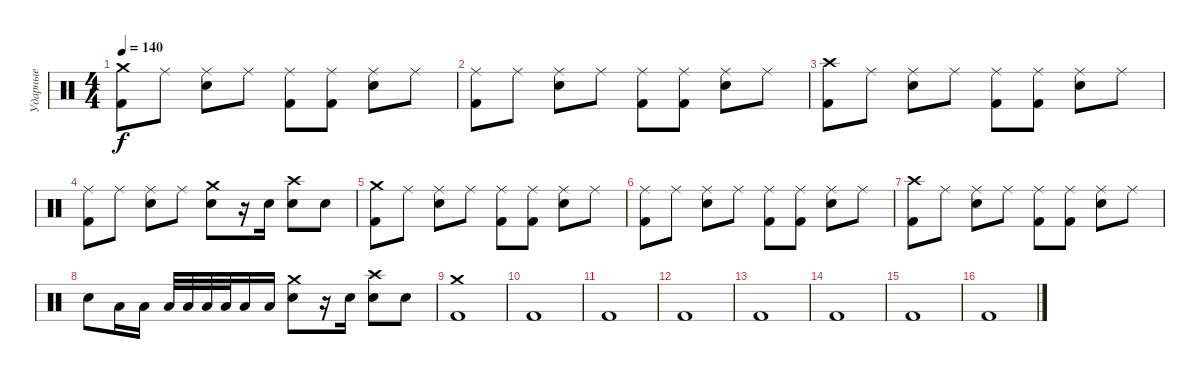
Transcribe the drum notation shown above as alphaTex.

\track ("Ударные" "Ударные") {instrument percussion}
\staff {score}
\articulation defaults
\ts (4 4)
\tempo 140
\clef neutral
\ks c
("Crash medium (hit)" "Kick (hit) 2").8{dy f} "Ride (middle)".8 ("Ride (middle)" "Electric Snare (hit)").8 "Ride (middle)".8 ("Ride (middle)" "Kick (hit) 2").8 ("Ride (middle)" "Kick (hit) 2").8 ("Ride (middle)" "Electric Snare (hit)").8 "Ride (middle)".8 |
("Ride (middle)" "Kick (hit) 2").8 "Ride (middle)".8 ("Ride (middle)" "Electric Snare (hit)").8 "Ride (middle)".8 ("Ride (middle)" "Kick (hit) 2").8 ("Ride (middle)" "Kick (hit) 2").8 ("Ride (middle)" "Electric Snare (hit)").8 "Ride (middle)".8 |
("Crash high (hit)" "Kick (hit) 2").8 "Ride (middle)".8 ("Ride (middle)" "Electric Snare (hit)").8 "Ride (middle)".8 ("Ride (middle)" "Kick (hit) 2").8 ("Ride (middle)" "Kick (hit) 2").8 ("Ride (middle)" "Electric Snare (hit)").8 "Ride (middle)".8 |
("Ride (middle)" "Kick (hit) 2").8 "Ride (middle)".8 ("Ride (middle)" "Electric Snare (hit)").8 "Ride (middle)".8 ("Crash medium (hit)" "Electric Snare (hit)").8 r.16 "Electric Snare (hit)".16 ("Crash high (hit)" "Electric Snare (hit)").8 "Electric Snare (hit)".8 |
("Crash medium (hit)" "Kick (hit) 2").8 "Ride (middle)".8 ("Ride (middle)" "Electric Snare (hit)").8 "Ride (middle)".8 ("Ride (middle)" "Kick (hit) 2").8 ("Ride (middle)" "Kick (hit) 2").8 ("Ride (middle)" "Electric Snare (hit)").8 "Ride (middle)".8 |
("Ride (middle)" "Kick (hit) 2").8 "Ride (middle)".8 ("Ride (middle)" "Electric Snare (hit)").8 "Ride (middle)".8 ("Ride (middle)" "Kick (hit) 2").8 ("Ride (middle)" "Kick (hit) 2").8 ("Ride (middle)" "Electric Snare (hit)").8 "Ride (middle)".8 |
("Crash high (hit)" "Kick (hit) 2").8 "Ride (middle)".8 ("Ride (middle)" "Electric Snare (hit)").8 "Ride (middle)".8 ("Ride (middle)" "Kick (hit) 2").8 ("Ride (middle)" "Kick (hit) 2").8 ("Ride (middle)" "Electric Snare (hit)").8 "Ride (middle)".8 |
"Electric Snare (hit)".8 "Low Tom (hit)".16 "Low Tom (hit)".16 "Low Tom (hit)".32 "Low Tom (hit)".32 "Low Tom (hit)".32 "Low Tom (hit)".32 "Low Tom (hit)".16 "Low Tom (hit)".16 ("Crash medium (hit)" "Electric Snare (hit)").8 r.16 "Electric Snare (hit)".16 ("Crash high (hit)" "Electric Snare (hit)").8 "Electric Snare (hit)".8 |
("Crash medium (hit)" "Kick (hit) 2").1 |
"Kick (hit) 2".1 |
"Kick (hit) 2".1 |
"Kick (hit) 2".1 |
"Kick (hit) 2".1 |
"Kick (hit) 2".1 |
"Kick (hit) 2".1 |
"Kick (hit) 2".1
